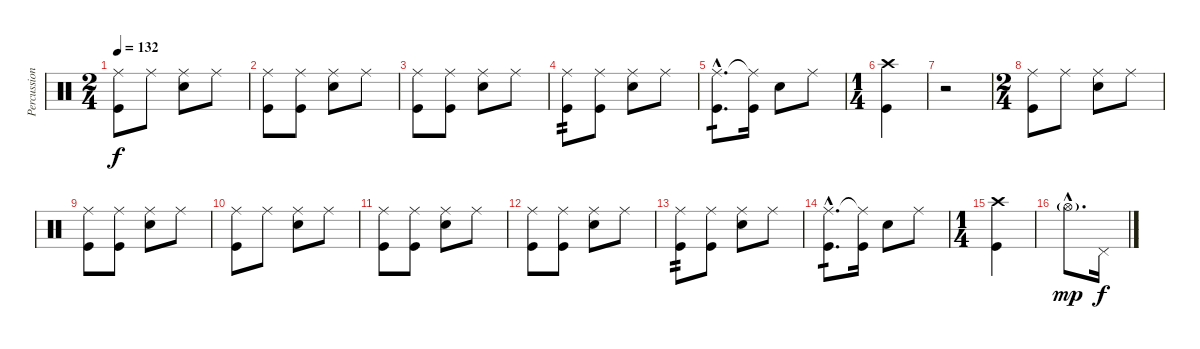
\track ("Percussion" "Percussion") {instrument percussion}
\staff {score}
\articulation defaults
\ts (2 4)
\tempo 132
\clef neutral
\ks c
("Ride (middle)" "Kick (hit)").8{dy f} "Ride (middle)".8 ("Ride (middle)" "Electric Snare (hit)").8 "Ride (middle)".8 |
("Ride (middle)" "Kick (hit)").8 ("Ride (middle)" "Kick (hit)").8 ("Ride (middle)" "Electric Snare (hit)").8 "Ride (middle)".8 |
("Ride (middle)" "Kick (hit)").8 ("Ride (middle)" "Kick (hit)").8 ("Ride (middle)" "Electric Snare (hit)").8 "Ride (middle)".8 |
("Ride (middle)" "Kick (hit)").8{tp 2} ("Ride (middle)" "Kick (hit)").8 ("Ride (middle)" "Electric Snare (hit)").8 "Ride (middle)".8 |
("Ride (middle)"{hac} "Kick (hit)"{hac}).8{d tp 1} ("Ride (middle)"{t} "Kick (hit)").16 "Electric Snare (hit)".8 "Ride (middle)".8 |
\ts (1 4)
("Kick (hit)" "Crash high (hit)").4 |
r.2 |
\ts (2 4)
("Ride (middle)" "Kick (hit)").8 "Ride (middle)".8 ("Ride (middle)" "Electric Snare (hit)").8 "Ride (middle)".8 |
("Ride (middle)" "Kick (hit)").8 ("Ride (middle)" "Kick (hit)").8 ("Ride (middle)" "Electric Snare (hit)").8 "Ride (middle)".8 |
("Ride (middle)" "Kick (hit)").8 "Ride (middle)".8 ("Ride (middle)" "Electric Snare (hit)").8 "Ride (middle)".8 |
("Ride (middle)" "Kick (hit)").8 ("Ride (middle)" "Kick (hit)").8 ("Ride (middle)" "Electric Snare (hit)").8 "Ride (middle)".8 |
("Ride (middle)" "Kick (hit)").8 ("Ride (middle)" "Kick (hit)").8 ("Ride (middle)" "Electric Snare (hit)").8 "Ride (middle)".8 |
("Ride (middle)" "Kick (hit)").8{tp 2} ("Ride (middle)" "Kick (hit)").8 ("Ride (middle)" "Electric Snare (hit)").8 "Ride (middle)".8 |
("Ride (middle)"{hac} "Kick (hit)"{hac}).8{d tp 1} ("Ride (middle)"{t} "Kick (hit)").16 "Electric Snare (hit)".8 "Ride (middle)".8 |
\ts (1 4)
("Kick (hit)" "Crash high (hit)").4 |
"Hi-Hat (open)"{g hac}.8{d dy mp} "Pedal Hi-Hat (hit)".16{dy f}
